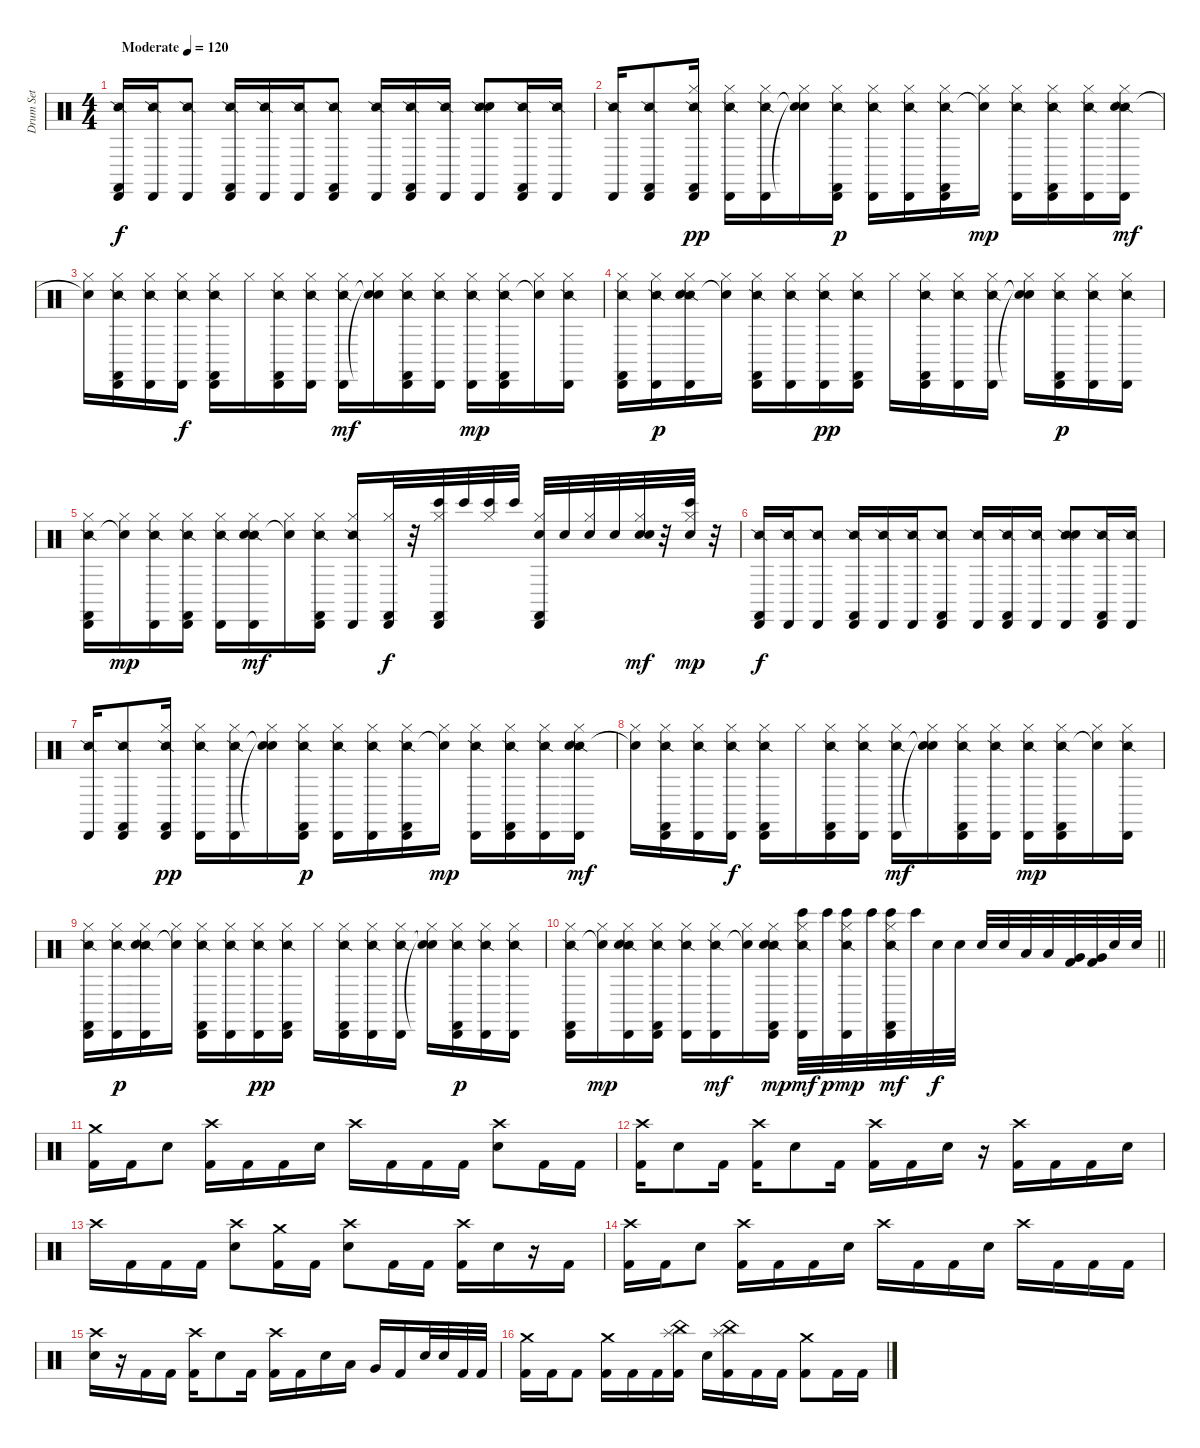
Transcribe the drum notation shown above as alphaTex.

\track ("Drum Set" "Drum Set") {instrument percussion}
\staff {score}
\articulation defaults
\ts (4 4)
\tempo (120 "Moderate")
\clef neutral
\ks c
("Snare (side stick) 2" "Cabasa (hit)" "Castanets (hit)").16{dy f} ("Snare (side stick) 2" "Cabasa (hit)").16 ("Snare (side stick) 2" "Cabasa (hit)").8 ("Snare (side stick) 2" "Cabasa (hit)" "Castanets (hit)").16 ("Snare (side stick) 2" "Cabasa (hit)").16 ("Snare (side stick) 2" "Cabasa (hit)").16 ("Snare (side stick) 2" "Cabasa (hit)" "Castanets (hit)").8 ("Snare (side stick) 2" "Cabasa (hit)").16 ("Snare (side stick) 2" "Cabasa (hit)" "Castanets (hit)").16 ("Snare (side stick) 2" "Cabasa (hit)").16 ("Snare (side stick) 2" "Cabasa (hit)" "Hand Clap (hit)").8 ("Snare (side stick) 2" "Cabasa (hit)" "Castanets (hit)").16 ("Snare (side stick) 2" "Cabasa (hit)").16 |
("Snare (side stick) 2" "Cabasa (hit)").16 ("Snare (side stick) 2" "Cabasa (hit)" "Castanets (hit)").8 ("Hi-Hat (closed)" "Snare (side stick) 2" "Cabasa (hit)" "Castanets (hit)").16{dy pp} ("Hi-Hat (closed)" "Snare (side stick) 2" "Cabasa (hit)").16 ("Hi-Hat (closed)" "Snare (side stick) 2" "Cabasa (hit)").16 ("Hi-Hat (closed)" "Snare (hit)"{t} "Snare (hit)"{t}).16 ("Hi-Hat (closed)" "Snare (side stick) 2" "Cabasa (hit)" "Castanets (hit)").16{dy p} ("Hi-Hat (closed)" "Snare (side stick) 2" "Cabasa (hit)").16 ("Hi-Hat (closed)" "Snare (side stick) 2" "Cabasa (hit)").16 ("Hi-Hat (closed)" "Snare (side stick) 2" "Cabasa (hit)" "Castanets (hit)").16 ("Hi-Hat (closed)" "Snare (hit)"{t}).16{dy mp} ("Hi-Hat (closed)" "Snare (side stick) 2" "Cabasa (hit)").16 ("Hi-Hat (closed)" "Snare (side stick) 2" "Cabasa (hit)" "Castanets (hit)").16 ("Hi-Hat (closed)" "Snare (side stick) 2" "Cabasa (hit)").16 ("Hi-Hat (closed)" "Snare (side stick) 2" "Cabasa (hit)" "Hand Clap (hit)").16{dy mf} |
("Hi-Hat (closed)" "Snare (hit)"{t}).16 ("Hi-Hat (closed)" "Snare (side stick) 2" "Cabasa (hit)" "Castanets (hit)").16 ("Hi-Hat (closed)" "Snare (side stick) 2" "Cabasa (hit)").16 ("Hi-Hat (closed)" "Snare (side stick) 2" "Cabasa (hit)").16{dy f} ("Hi-Hat (closed)" "Snare (side stick) 2" "Cabasa (hit)" "Castanets (hit)").16 "Hi-Hat (closed)".16 ("Hi-Hat (closed)" "Snare (side stick) 2" "Cabasa (hit)" "Castanets (hit)").16 ("Hi-Hat (closed)" "Snare (side stick) 2" "Cabasa (hit)").16 ("Hi-Hat (closed)" "Snare (side stick) 2" "Cabasa (hit)").16{dy mf} ("Hi-Hat (closed)" "Snare (hit)"{t} "Snare (hit)"{t}).16 ("Hi-Hat (closed)" "Snare (side stick) 2" "Cabasa (hit)" "Castanets (hit)").16 ("Hi-Hat (closed)" "Snare (side stick) 2" "Cabasa (hit)").16 ("Hi-Hat (closed)" "Snare (side stick) 2" "Cabasa (hit)").16{dy mp} ("Hi-Hat (closed)" "Snare (side stick) 2" "Cabasa (hit)" "Castanets (hit)").16 ("Hi-Hat (closed)" "Snare (hit)"{t}).16 ("Hi-Hat (closed)" "Snare (side stick) 2" "Cabasa (hit)").16 |
("Hi-Hat (closed)" "Snare (side stick) 2" "Cabasa (hit)" "Castanets (hit)").16 ("Hi-Hat (closed)" "Snare (side stick) 2" "Cabasa (hit)").16{dy p} ("Hi-Hat (closed)" "Snare (side stick) 2" "Cabasa (hit)" "Hand Clap (hit)").16 ("Hi-Hat (closed)" "Snare (hit)"{t}).16 ("Hi-Hat (closed)" "Snare (side stick) 2" "Cabasa (hit)" "Castanets (hit)").16 ("Hi-Hat (closed)" "Snare (side stick) 2" "Cabasa (hit)").16 ("Hi-Hat (closed)" "Snare (side stick) 2" "Cabasa (hit)").16{dy pp} ("Hi-Hat (closed)" "Snare (side stick) 2" "Cabasa (hit)" "Castanets (hit)").16 "Hi-Hat (closed)".16 ("Hi-Hat (closed)" "Snare (side stick) 2" "Cabasa (hit)" "Castanets (hit)").16 ("Hi-Hat (closed)" "Snare (side stick) 2" "Cabasa (hit)").16 ("Hi-Hat (closed)" "Snare (side stick) 2" "Cabasa (hit)").16 ("Hi-Hat (closed)" "Snare (hit)"{t} "Snare (hit)"{t}).16 ("Hi-Hat (closed)" "Snare (side stick) 2" "Cabasa (hit)" "Castanets (hit)").16{dy p} ("Hi-Hat (closed)" "Snare (side stick) 2" "Cabasa (hit)").16 ("Hi-Hat (closed)" "Snare (side stick) 2" "Cabasa (hit)").16 |
("Hi-Hat (closed)" "Snare (side stick) 2" "Cabasa (hit)" "Castanets (hit)").16 ("Hi-Hat (closed)" "Snare (hit)"{t}).16{dy mp} ("Hi-Hat (closed)" "Snare (side stick) 2" "Cabasa (hit)").16 ("Hi-Hat (closed)" "Snare (side stick) 2" "Cabasa (hit)" "Castanets (hit)").16 ("Hi-Hat (closed)" "Snare (side stick) 2" "Cabasa (hit)").16 ("Hi-Hat (closed)" "Snare (side stick) 2" "Cabasa (hit)" "Hand Clap (hit)").16{dy mf} ("Hi-Hat (closed)" "Snare (hit)"{t}).16 ("Hi-Hat (closed)" "Snare (side stick) 2" "Cabasa (hit)" "Castanets (hit)").16 ("Hi-Hat (closed)" "Snare (side stick) 2" "Cabasa (hit)").16 ("Hi-Hat (closed)" "Cabasa (hit)" "Castanets (hit)").32{dy f} r.32 ("Hi-Hat (closed)" "Bongo High (hit)" "Cabasa (hit)" "Castanets (hit)").32 "Bongo High (hit)".32 ("Hi-Hat (closed)" "Bongo High (hit)").32 "Bongo High (hit)".32 ("Hi-Hat (closed)" "Cabasa (hit)" "Castanets (hit)" "Hand Clap (hit)").32 "Hand Clap (hit)".32 ("Hi-Hat (closed)" "Hand Clap (hit)").32 "Hand Clap (hit)".32 ("Hi-Hat (closed)" "Hand Clap (hit)" "Hand Clap (hit)").32{dy mf} r.32 ("Hi-Hat (closed)" "Hand Clap (hit)" "Bongo High (hit)").32{dy mp} r.32 |
("Snare (side stick) 2" "Cabasa (hit)" "Castanets (hit)").16{dy f} ("Snare (side stick) 2" "Cabasa (hit)").16 ("Snare (side stick) 2" "Cabasa (hit)").8 ("Snare (side stick) 2" "Cabasa (hit)" "Castanets (hit)").16 ("Snare (side stick) 2" "Cabasa (hit)").16 ("Snare (side stick) 2" "Cabasa (hit)").16 ("Snare (side stick) 2" "Cabasa (hit)" "Castanets (hit)").8 ("Snare (side stick) 2" "Cabasa (hit)").16 ("Snare (side stick) 2" "Cabasa (hit)" "Castanets (hit)").16 ("Snare (side stick) 2" "Cabasa (hit)").16 ("Snare (side stick) 2" "Cabasa (hit)" "Hand Clap (hit)").8 ("Snare (side stick) 2" "Cabasa (hit)" "Castanets (hit)").16 ("Snare (side stick) 2" "Cabasa (hit)").16 |
("Snare (side stick) 2" "Cabasa (hit)").16 ("Snare (side stick) 2" "Cabasa (hit)" "Castanets (hit)").8 ("Hi-Hat (closed)" "Snare (side stick) 2" "Cabasa (hit)" "Castanets (hit)").16{dy pp} ("Hi-Hat (closed)" "Snare (side stick) 2" "Cabasa (hit)").16 ("Hi-Hat (closed)" "Snare (side stick) 2" "Cabasa (hit)").16 ("Hi-Hat (closed)" "Snare (hit)"{t} "Snare (hit)"{t}).16 ("Hi-Hat (closed)" "Snare (side stick) 2" "Cabasa (hit)" "Castanets (hit)").16{dy p} ("Hi-Hat (closed)" "Snare (side stick) 2" "Cabasa (hit)").16 ("Hi-Hat (closed)" "Snare (side stick) 2" "Cabasa (hit)").16 ("Hi-Hat (closed)" "Snare (side stick) 2" "Cabasa (hit)" "Castanets (hit)").16 ("Hi-Hat (closed)" "Snare (hit)"{t}).16{dy mp} ("Hi-Hat (closed)" "Snare (side stick) 2" "Cabasa (hit)").16 ("Hi-Hat (closed)" "Snare (side stick) 2" "Cabasa (hit)" "Castanets (hit)").16 ("Hi-Hat (closed)" "Snare (side stick) 2" "Cabasa (hit)").16 ("Hi-Hat (closed)" "Snare (side stick) 2" "Cabasa (hit)" "Hand Clap (hit)").16{dy mf} |
("Hi-Hat (closed)" "Snare (hit)"{t}).16 ("Hi-Hat (closed)" "Snare (side stick) 2" "Cabasa (hit)" "Castanets (hit)").16 ("Hi-Hat (closed)" "Snare (side stick) 2" "Cabasa (hit)").16 ("Hi-Hat (closed)" "Snare (side stick) 2" "Cabasa (hit)").16{dy f} ("Hi-Hat (closed)" "Snare (side stick) 2" "Cabasa (hit)" "Castanets (hit)").16 "Hi-Hat (closed)".16 ("Hi-Hat (closed)" "Snare (side stick) 2" "Cabasa (hit)" "Castanets (hit)").16 ("Hi-Hat (closed)" "Snare (side stick) 2" "Cabasa (hit)").16 ("Hi-Hat (closed)" "Snare (side stick) 2" "Cabasa (hit)").16{dy mf} ("Hi-Hat (closed)" "Snare (hit)"{t} "Snare (hit)"{t}).16 ("Hi-Hat (closed)" "Snare (side stick) 2" "Cabasa (hit)" "Castanets (hit)").16 ("Hi-Hat (closed)" "Snare (side stick) 2" "Cabasa (hit)").16 ("Hi-Hat (closed)" "Snare (side stick) 2" "Cabasa (hit)").16{dy mp} ("Hi-Hat (closed)" "Snare (side stick) 2" "Cabasa (hit)" "Castanets (hit)").16 ("Hi-Hat (closed)" "Snare (hit)"{t}).16 ("Hi-Hat (closed)" "Snare (side stick) 2" "Cabasa (hit)").16 |
("Hi-Hat (closed)" "Snare (side stick) 2" "Cabasa (hit)" "Castanets (hit)").16 ("Hi-Hat (closed)" "Snare (side stick) 2" "Cabasa (hit)").16{dy p} ("Hi-Hat (closed)" "Snare (side stick) 2" "Cabasa (hit)" "Hand Clap (hit)").16 ("Hi-Hat (closed)" "Snare (hit)"{t}).16 ("Hi-Hat (closed)" "Snare (side stick) 2" "Cabasa (hit)" "Castanets (hit)").16 ("Hi-Hat (closed)" "Snare (side stick) 2" "Cabasa (hit)").16 ("Hi-Hat (closed)" "Snare (side stick) 2" "Cabasa (hit)").16{dy pp} ("Hi-Hat (closed)" "Snare (side stick) 2" "Cabasa (hit)" "Castanets (hit)").16 "Hi-Hat (closed)".16 ("Hi-Hat (closed)" "Snare (side stick) 2" "Cabasa (hit)" "Castanets (hit)").16 ("Hi-Hat (closed)" "Snare (side stick) 2" "Cabasa (hit)").16 ("Hi-Hat (closed)" "Snare (side stick) 2" "Cabasa (hit)").16 ("Hi-Hat (closed)" "Snare (hit)"{t} "Snare (hit)"{t}).16 ("Hi-Hat (closed)" "Snare (side stick) 2" "Cabasa (hit)" "Castanets (hit)").16{dy p} ("Hi-Hat (closed)" "Snare (side stick) 2" "Cabasa (hit)").16 ("Hi-Hat (closed)" "Snare (side stick) 2" "Cabasa (hit)").16 |
\barLineRight lightlight
("Hi-Hat (closed)" "Snare (side stick) 2" "Cabasa (hit)" "Castanets (hit)").16 ("Hi-Hat (closed)" "Snare (hit)"{t}).16{dy mp} ("Hi-Hat (closed)" "Snare (side stick) 2" "Cabasa (hit)" "Hand Clap (hit)").16 ("Hi-Hat (closed)" "Snare (side stick) 2" "Cabasa (hit)" "Castanets (hit)").16 ("Hi-Hat (closed)" "Snare (side stick) 2" "Cabasa (hit)").16 ("Hi-Hat (closed)" "Snare (side stick) 2" "Cabasa (hit)").16{dy mf} ("Hi-Hat (closed)" "Snare (hit)"{t}).16 ("Hi-Hat (closed)" "Snare (side stick) 2" "Cabasa (hit)" "Castanets (hit)" "Hand Clap (hit)").16{dy mp} ("Bongo High (hit)" "Hi-Hat (closed)" "Snare (side stick) 2" "Cabasa (hit)").32{dy mf} "Bongo High (hit)".32{dy p} ("Bongo High (hit)" "Hi-Hat (closed)" "Snare (side stick) 2" "Cabasa (hit)").32{dy mp} "Bongo High (hit)".32 ("Bongo High (hit)" "Hi-Hat (closed)" "Snare (side stick) 2" "Cabasa (hit)" "Castanets (hit)").32{dy mf} "Bongo High (hit)".32 "Electric Snare (hit)".32{dy f} "Electric Snare (hit)".32 "Electric Snare (hit)".32 "Electric Snare (hit)".32 "Low Tom (hit)".32 "Low Tom (hit)".32 ("Very Low Tom (hit)" "Kick (hit) 2").32 ("Very Low Tom (hit)" "Kick (hit) 2").32 "Electric Snare (hit)".32 "Electric Snare (hit)".32 |
("Crash medium (hit)" "Kick (hit) 2").16 "Kick (hit) 2".16 "Electric Snare (hit)".8 ("Crash high (hit)" "Kick (hit) 2").16 "Kick (hit) 2".16 "Kick (hit) 2".16 "Electric Snare (hit)".16 "Crash high (hit)".16 "Kick (hit) 2".16 "Kick (hit) 2".16 "Kick (hit) 2".16 ("Crash high (hit)" "Electric Snare (hit)").8 "Kick (hit) 2".16 "Kick (hit) 2".16 |
("Crash high (hit)" "Kick (hit) 2").16 "Electric Snare (hit)".8 "Kick (hit) 2".16 ("Crash high (hit)" "Kick (hit) 2").16 "Electric Snare (hit)".8 "Kick (hit) 2".16 ("Crash high (hit)" "Kick (hit) 2").16 "Kick (hit) 2".16 "Electric Snare (hit)".16 r.16 ("Crash high (hit)" "Kick (hit) 2").16 "Kick (hit) 2".16 "Kick (hit) 2".16 "Electric Snare (hit)".16 |
"Crash high (hit)".16 "Kick (hit) 2".16 "Kick (hit) 2".16 "Kick (hit) 2".16 ("Crash high (hit)" "Electric Snare (hit)").8 ("Crash medium (hit)" "Kick (hit) 2").16 "Kick (hit) 2".16 ("Crash high (hit)" "Electric Snare (hit)").8 "Kick (hit) 2".16 "Kick (hit) 2".16 ("Crash high (hit)" "Kick (hit) 2").16 "Electric Snare (hit)".16 r.16 "Kick (hit) 2".16 |
("Crash high (hit)" "Kick (hit) 2").16 "Kick (hit) 2".16 "Electric Snare (hit)".8 ("Crash high (hit)" "Kick (hit) 2").16 "Kick (hit) 2".16 "Kick (hit) 2".16 "Electric Snare (hit)".16 "Crash high (hit)".16 "Kick (hit) 2".16 "Kick (hit) 2".16 "Electric Snare (hit)".16 "Crash high (hit)".16 "Kick (hit) 2".16 "Kick (hit) 2".16 "Kick (hit) 2".16 |
("Crash high (hit)" "Electric Snare (hit)").16 r.16 "Kick (hit) 2".16 "Kick (hit) 2".16 ("Crash high (hit)" "Kick (hit) 2").16 "Electric Snare (hit)".8 "Kick (hit) 2".16 ("Crash high (hit)" "Kick (hit) 2").16 "Kick (hit) 2".16 "Electric Snare (hit)".16 "Low Tom (hit)".16 "Very Low Tom (hit)".16 "Kick (hit) 2".16 "Electric Snare (hit)".32 "Electric Snare (hit)".32 "Kick (hit) 2".32 "Kick (hit) 2".32 |
("Crash medium (hit)" "Kick (hit) 2").16 "Kick (hit) 2".16 "Kick (hit) 2".8 ("Crash medium (hit)" "Kick (hit) 2").16 "Kick (hit) 2".16 "Kick (hit) 2".16 ("China (hit)" "Splash (hit)" "Kick (hit) 2").16 "Electric Snare (hit)".16 ("China (hit)" "Splash (hit)" "Kick (hit) 2").16 "Kick (hit) 2".16 "Kick (hit) 2".16 ("Crash medium (hit)" "Kick (hit) 2").8 "Kick (hit) 2".16 "Kick (hit) 2".16
